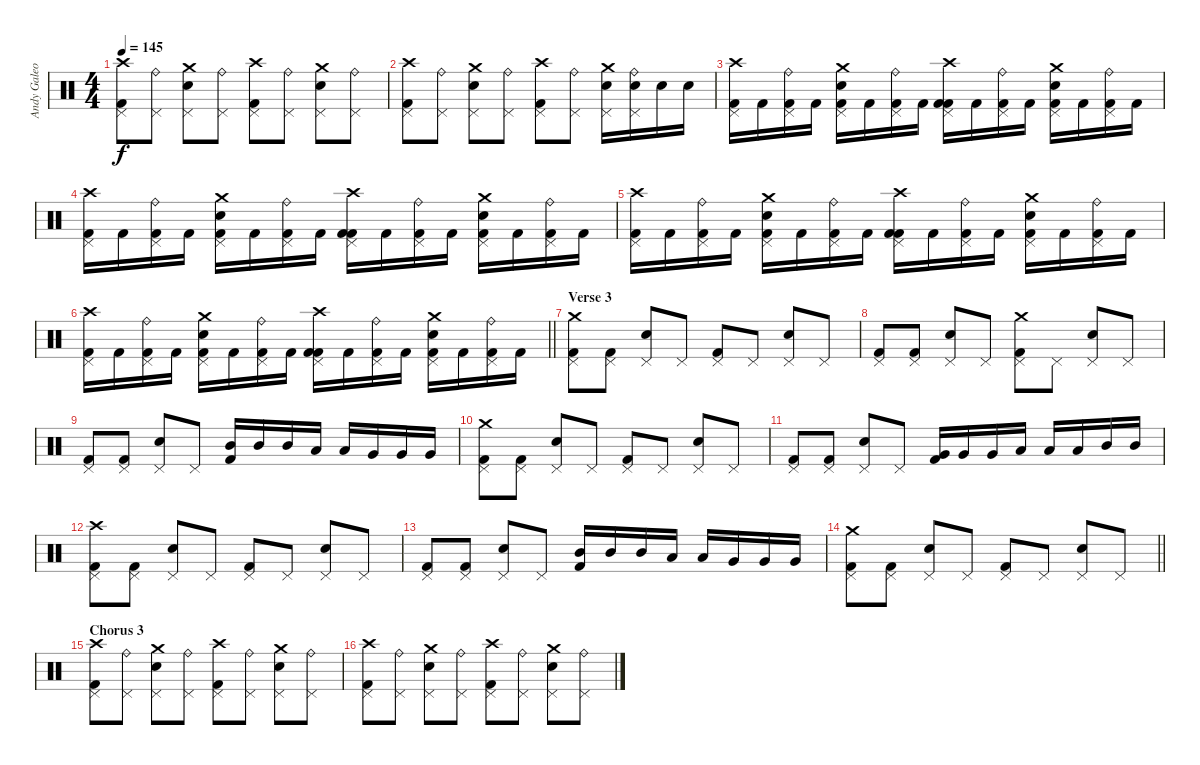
\track ("Andy Galeon" "Andy Galeo") {instrument percussion}
\staff {score}
\articulation defaults
\ts (4 4)
\tempo 145
\clef neutral
\ks c
("Kick (hit) 2" "Pedal Hi-Hat (hit)" "Crash high (hit)").8{dy f} ("Pedal Hi-Hat (hit)" "Ride (bell)").8 ("Electric Snare (hit)" "Pedal Hi-Hat (hit)" "Crash medium (hit)").8 ("Pedal Hi-Hat (hit)" "Ride (bell)").8 ("Kick (hit) 2" "Pedal Hi-Hat (hit)" "Crash high (hit)").8 ("Pedal Hi-Hat (hit)" "Ride (bell)").8 ("Electric Snare (hit)" "Pedal Hi-Hat (hit)" "Crash medium (hit)").8 ("Pedal Hi-Hat (hit)" "Ride (bell)").8 |
("Kick (hit) 2" "Pedal Hi-Hat (hit)" "Crash high (hit)").8 ("Pedal Hi-Hat (hit)" "Ride (bell)").8 ("Electric Snare (hit)" "Pedal Hi-Hat (hit)" "Crash medium (hit)").8 ("Pedal Hi-Hat (hit)" "Ride (bell)").8 ("Kick (hit) 2" "Pedal Hi-Hat (hit)" "Crash high (hit)").8 ("Pedal Hi-Hat (hit)" "Ride (bell)").8 ("Electric Snare (hit)" "Pedal Hi-Hat (hit)" "Crash medium (hit)").16 ("Electric Snare (hit)" "Pedal Hi-Hat (hit)" "Ride (bell)").16 "Electric Snare (hit)".16 "Electric Snare (hit)".16 |
("Kick (hit) 2" "Pedal Hi-Hat (hit)" "Crash high (hit)").16 "Kick (hit) 2".16 ("Kick (hit) 2" "Pedal Hi-Hat (hit)" "Ride (bell)").16 "Kick (hit) 2".16 ("Electric Snare (hit)" "Kick (hit) 2" "Pedal Hi-Hat (hit)" "Crash medium (hit)").16 "Kick (hit) 2".16 ("Kick (hit) 2" "Pedal Hi-Hat (hit)" "Ride (bell)").16 "Kick (hit) 2".16 ("Kick (hit) 2" "Kick (hit) 2" "Pedal Hi-Hat (hit)" "Crash high (hit)").16 "Kick (hit) 2".16 ("Kick (hit) 2" "Pedal Hi-Hat (hit)" "Ride (bell)").16 "Kick (hit) 2".16 ("Electric Snare (hit)" "Kick (hit) 2" "Pedal Hi-Hat (hit)" "Crash medium (hit)").16 "Kick (hit) 2".16 ("Kick (hit) 2" "Pedal Hi-Hat (hit)" "Ride (bell)").16 "Kick (hit) 2".16 |
("Kick (hit) 2" "Pedal Hi-Hat (hit)" "Crash high (hit)").16 "Kick (hit) 2".16 ("Kick (hit) 2" "Pedal Hi-Hat (hit)" "Ride (bell)").16 "Kick (hit) 2".16 ("Electric Snare (hit)" "Kick (hit) 2" "Pedal Hi-Hat (hit)" "Crash medium (hit)").16 "Kick (hit) 2".16 ("Kick (hit) 2" "Pedal Hi-Hat (hit)" "Ride (bell)").16 "Kick (hit) 2".16 ("Kick (hit) 2" "Kick (hit) 2" "Pedal Hi-Hat (hit)" "Crash high (hit)").16 "Kick (hit) 2".16 ("Kick (hit) 2" "Pedal Hi-Hat (hit)" "Ride (bell)").16 "Kick (hit) 2".16 ("Electric Snare (hit)" "Kick (hit) 2" "Pedal Hi-Hat (hit)" "Crash medium (hit)").16 "Kick (hit) 2".16 ("Kick (hit) 2" "Pedal Hi-Hat (hit)" "Ride (bell)").16 "Kick (hit) 2".16 |
("Kick (hit) 2" "Pedal Hi-Hat (hit)" "Crash high (hit)").16 "Kick (hit) 2".16 ("Kick (hit) 2" "Pedal Hi-Hat (hit)" "Ride (bell)").16 "Kick (hit) 2".16 ("Electric Snare (hit)" "Kick (hit) 2" "Pedal Hi-Hat (hit)" "Crash medium (hit)").16 "Kick (hit) 2".16 ("Kick (hit) 2" "Pedal Hi-Hat (hit)" "Ride (bell)").16 "Kick (hit) 2".16 ("Kick (hit) 2" "Kick (hit) 2" "Pedal Hi-Hat (hit)" "Crash high (hit)").16 "Kick (hit) 2".16 ("Kick (hit) 2" "Pedal Hi-Hat (hit)" "Ride (bell)").16 "Kick (hit) 2".16 ("Electric Snare (hit)" "Kick (hit) 2" "Pedal Hi-Hat (hit)" "Crash medium (hit)").16 "Kick (hit) 2".16 ("Kick (hit) 2" "Pedal Hi-Hat (hit)" "Ride (bell)").16 "Kick (hit) 2".16 |
\barLineRight lightlight
("Kick (hit) 2" "Pedal Hi-Hat (hit)" "Crash high (hit)").16 "Kick (hit) 2".16 ("Kick (hit) 2" "Pedal Hi-Hat (hit)" "Ride (bell)").16 "Kick (hit) 2".16 ("Electric Snare (hit)" "Kick (hit) 2" "Pedal Hi-Hat (hit)" "Crash medium (hit)").16 "Kick (hit) 2".16 ("Kick (hit) 2" "Pedal Hi-Hat (hit)" "Ride (bell)").16 "Kick (hit) 2".16 ("Kick (hit) 2" "Kick (hit) 2" "Pedal Hi-Hat (hit)" "Crash high (hit)").16 "Kick (hit) 2".16 ("Kick (hit) 2" "Pedal Hi-Hat (hit)" "Ride (bell)").16 "Kick (hit) 2".16 ("Electric Snare (hit)" "Kick (hit) 2" "Pedal Hi-Hat (hit)" "Crash medium (hit)").16 "Kick (hit) 2".16 ("Kick (hit) 2" "Pedal Hi-Hat (hit)" "Ride (bell)").16 "Kick (hit) 2".16 |
\section ("" "Verse 3")
("Kick (hit) 2" "Pedal Hi-Hat (hit)" "Crash medium (hit)").8 ("Kick (hit) 2" "Pedal Hi-Hat (hit)").8 ("Electric Snare (hit)" "Pedal Hi-Hat (hit)").8 "Pedal Hi-Hat (hit)".8 ("Kick (hit) 2" "Pedal Hi-Hat (hit)").8 "Pedal Hi-Hat (hit)".8 ("Electric Snare (hit)" "Pedal Hi-Hat (hit)").8 "Pedal Hi-Hat (hit)".8 |
("Kick (hit) 2" "Pedal Hi-Hat (hit)").8 ("Kick (hit) 2" "Pedal Hi-Hat (hit)").8 ("Electric Snare (hit)" "Pedal Hi-Hat (hit)").8 "Pedal Hi-Hat (hit)".8 ("Kick (hit) 2" "Pedal Hi-Hat (hit)" "Crash medium (hit)").8 "Pedal Hi-Hat (hit)".8 ("Electric Snare (hit)" "Pedal Hi-Hat (hit)").8 "Pedal Hi-Hat (hit)".8 |
("Kick (hit) 2" "Pedal Hi-Hat (hit)").8 ("Kick (hit) 2" "Pedal Hi-Hat (hit)").8 ("Electric Snare (hit)" "Pedal Hi-Hat (hit)").8 "Pedal Hi-Hat (hit)".8 ("Kick (hit) 2" "Mid Tom (hit)").16 "Mid Tom (hit)".16 "Mid Tom (hit)".16 "Low Tom (hit)".16 "Low Tom (hit)".16 "Very Low Tom (hit)".16 "Very Low Tom (hit)".16 "Very Low Tom (hit)".16 |
("Kick (hit) 2" "Pedal Hi-Hat (hit)" "Crash medium (hit)").8 ("Kick (hit) 2" "Pedal Hi-Hat (hit)").8 ("Electric Snare (hit)" "Pedal Hi-Hat (hit)").8 "Pedal Hi-Hat (hit)".8 ("Kick (hit) 2" "Pedal Hi-Hat (hit)").8 "Pedal Hi-Hat (hit)".8 ("Electric Snare (hit)" "Pedal Hi-Hat (hit)").8 "Pedal Hi-Hat (hit)".8 |
("Kick (hit) 2" "Pedal Hi-Hat (hit)").8 ("Kick (hit) 2" "Pedal Hi-Hat (hit)").8 ("Electric Snare (hit)" "Pedal Hi-Hat (hit)").8 "Pedal Hi-Hat (hit)".8 ("Kick (hit) 2" "Very Low Tom (hit)").16 "Very Low Tom (hit)".16 "Very Low Tom (hit)".16 "Low Tom (hit)".16 "Low Tom (hit)".16 "Low Tom (hit)".16 "Mid Tom (hit)".16 "Mid Tom (hit)".16 |
("Kick (hit) 2" "Pedal Hi-Hat (hit)" "Crash high (hit)").8 ("Kick (hit) 2" "Pedal Hi-Hat (hit)").8 ("Electric Snare (hit)" "Pedal Hi-Hat (hit)").8 "Pedal Hi-Hat (hit)".8 ("Kick (hit) 2" "Pedal Hi-Hat (hit)").8 "Pedal Hi-Hat (hit)".8 ("Electric Snare (hit)" "Pedal Hi-Hat (hit)").8 "Pedal Hi-Hat (hit)".8 |
("Kick (hit) 2" "Pedal Hi-Hat (hit)").8 ("Kick (hit) 2" "Pedal Hi-Hat (hit)").8 ("Electric Snare (hit)" "Pedal Hi-Hat (hit)").8 "Pedal Hi-Hat (hit)".8 ("Kick (hit) 2" "Mid Tom (hit)").16 "Mid Tom (hit)".16 "Mid Tom (hit)".16 "Low Tom (hit)".16 "Low Tom (hit)".16 "Very Low Tom (hit)".16 "Very Low Tom (hit)".16 "Very Low Tom (hit)".16 |
\barLineRight lightlight
("Kick (hit) 2" "Pedal Hi-Hat (hit)" "Crash medium (hit)").8 ("Kick (hit) 2" "Pedal Hi-Hat (hit)").8 ("Electric Snare (hit)" "Pedal Hi-Hat (hit)").8 "Pedal Hi-Hat (hit)".8 ("Kick (hit) 2" "Pedal Hi-Hat (hit)").8 "Pedal Hi-Hat (hit)".8 ("Electric Snare (hit)" "Pedal Hi-Hat (hit)").8 "Pedal Hi-Hat (hit)".8 |
\section ("" "Chorus 3")
("Kick (hit) 2" "Pedal Hi-Hat (hit)" "Crash high (hit)").8 ("Pedal Hi-Hat (hit)" "Ride (bell)").8 ("Electric Snare (hit)" "Pedal Hi-Hat (hit)" "Crash medium (hit)").8 ("Pedal Hi-Hat (hit)" "Ride (bell)").8 ("Kick (hit) 2" "Pedal Hi-Hat (hit)" "Crash high (hit)").8 ("Pedal Hi-Hat (hit)" "Ride (bell)").8 ("Electric Snare (hit)" "Pedal Hi-Hat (hit)" "Crash medium (hit)").8 ("Pedal Hi-Hat (hit)" "Ride (bell)").8 |
("Kick (hit) 2" "Pedal Hi-Hat (hit)" "Crash high (hit)").8 ("Pedal Hi-Hat (hit)" "Ride (bell)").8 ("Electric Snare (hit)" "Pedal Hi-Hat (hit)" "Crash medium (hit)").8 ("Pedal Hi-Hat (hit)" "Ride (bell)").8 ("Kick (hit) 2" "Pedal Hi-Hat (hit)" "Crash high (hit)").8 ("Pedal Hi-Hat (hit)" "Ride (bell)").8 ("Electric Snare (hit)" "Pedal Hi-Hat (hit)" "Crash medium (hit)").8 ("Pedal Hi-Hat (hit)" "Ride (bell)").8
